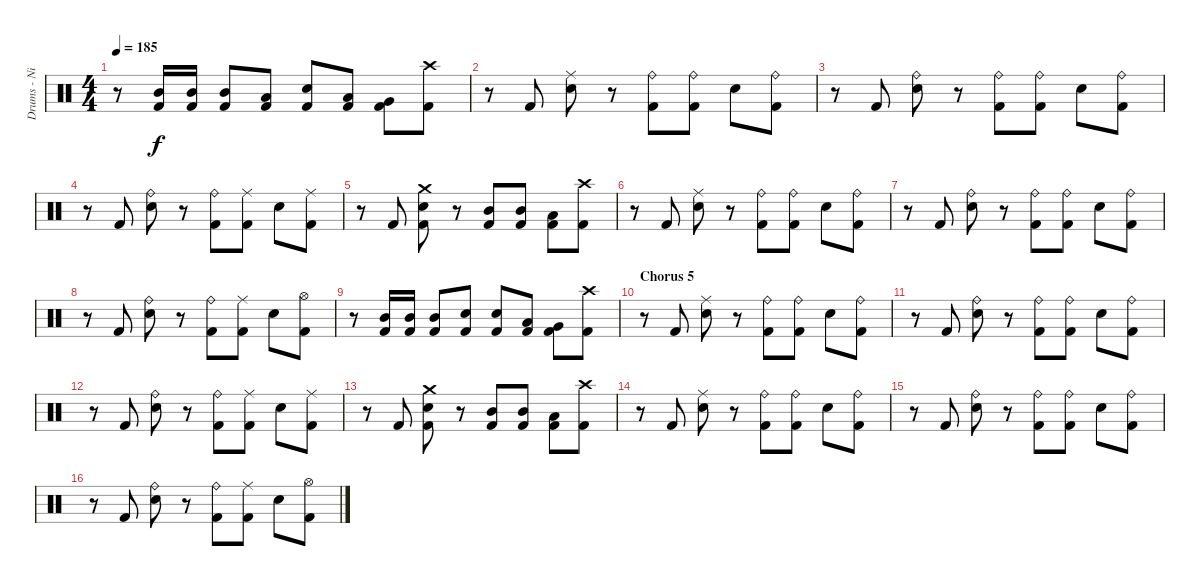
\track ("Drums - Nicko" "Drums - Ni") {instrument percussion}
\staff {score}
\articulation defaults
\ts (4 4)
\tempo 185
\clef neutral
\ks c
r.8{dy f} ("Mid Tom (hit)" "Kick (hit) 2").16 ("Mid Tom (hit)" "Kick (hit) 2").16 ("Mid Tom (hit)" "Kick (hit) 2").8 ("Low Tom (hit)" "Kick (hit) 2").8 ("Snare (hit) 2" "Kick (hit) 2").8 ("Low Tom (hit)" "Kick (hit) 2").8 ("Very Low Tom (hit)" "Kick (hit) 2").8 ("Crash high (hit)" "Kick (hit) 2").8 |
\section ("" "")
r.8 "Kick (hit) 2".8 ("Ride (middle)" "Snare (hit) 2").8 r.8 ("Ride (bell)" "Kick (hit) 2").8 ("Ride (bell)" "Kick (hit) 2").8 "Snare (hit) 2".8 ("Ride (bell)" "Kick (hit) 2").8 |
r.8 "Kick (hit) 2".8 ("Ride (bell)" "Snare (hit) 2").8 r.8 ("Ride (bell)" "Kick (hit) 2").8 ("Ride (bell)" "Kick (hit) 2").8 "Snare (hit) 2".8 ("Ride (bell)" "Kick (hit) 2").8 |
r.8 "Kick (hit) 2".8 ("Ride (bell)" "Snare (hit) 2").8 r.8 ("Ride (bell)" "Kick (hit) 2").8 ("Ride (middle)" "Kick (hit) 2").8 "Snare (hit) 2".8 ("Ride (middle)" "Kick (hit) 2").8 |
r.8 "Kick (hit) 2".8 ("Crash medium (hit)" "Snare (hit) 2" "Kick (hit) 2").8 r.8 ("Mid Tom (hit)" "Kick (hit) 2").8 ("Mid Tom (hit)" "Kick (hit) 2").8 ("Low Tom (hit)" "Kick (hit) 2").8 ("Crash high (hit)" "Kick (hit) 2").8 |
r.8 "Kick (hit) 2".8 ("Ride (middle)" "Snare (hit) 2").8 r.8 ("Ride (bell)" "Kick (hit) 2").8 ("Ride (bell)" "Kick (hit) 2").8 "Snare (hit) 2".8 ("Ride (bell)" "Kick (hit) 2").8 |
r.8 "Kick (hit) 2".8 ("Ride (bell)" "Snare (hit) 2").8 r.8 ("Ride (bell)" "Kick (hit) 2").8 ("Ride (bell)" "Kick (hit) 2").8 "Snare (hit) 2".8 ("Ride (bell)" "Kick (hit) 2").8 |
r.8 "Kick (hit) 2".8 ("Ride (bell)" "Snare (hit) 2").8 r.8 ("Ride (bell)" "Kick (hit) 2").8 ("Ride (middle)" "Kick (hit) 2").8 "Snare (hit) 2".8 ("Hi-Hat (open)" "Kick (hit) 2").8 |
r.8 ("Mid Tom (hit)" "Kick (hit) 2").16 ("Mid Tom (hit)" "Kick (hit) 2").16 ("Mid Tom (hit)" "Kick (hit) 2").8 ("Snare (hit) 2" "Kick (hit) 2").8 ("Snare (hit) 2" "Kick (hit) 2").8 ("Low Tom (hit)" "Kick (hit) 2").8 ("Very Low Tom (hit)" "Kick (hit) 2").8 ("Crash high (hit)" "Kick (hit) 2").8 |
\section ("" "Chorus 5")
r.8 "Kick (hit) 2".8 ("Ride (middle)" "Snare (hit) 2").8 r.8 ("Ride (bell)" "Kick (hit) 2").8 ("Ride (bell)" "Kick (hit) 2").8 "Snare (hit) 2".8 ("Ride (bell)" "Kick (hit) 2").8 |
r.8 "Kick (hit) 2".8 ("Ride (bell)" "Snare (hit) 2").8 r.8 ("Ride (bell)" "Kick (hit) 2").8 ("Ride (bell)" "Kick (hit) 2").8 "Snare (hit) 2".8 ("Ride (bell)" "Kick (hit) 2").8 |
r.8 "Kick (hit) 2".8 ("Ride (bell)" "Snare (hit) 2").8 r.8 ("Ride (bell)" "Kick (hit) 2").8 ("Ride (middle)" "Kick (hit) 2").8 "Snare (hit) 2".8 ("Ride (middle)" "Kick (hit) 2").8 |
r.8 "Kick (hit) 2".8 ("Crash medium (hit)" "Snare (hit) 2" "Kick (hit) 2").8 r.8 ("Mid Tom (hit)" "Kick (hit) 2").8 ("Mid Tom (hit)" "Kick (hit) 2").8 ("Low Tom (hit)" "Kick (hit) 2").8 ("Crash high (hit)" "Kick (hit) 2").8 |
r.8 "Kick (hit) 2".8 ("Ride (middle)" "Snare (hit) 2").8 r.8 ("Ride (bell)" "Kick (hit) 2").8 ("Ride (bell)" "Kick (hit) 2").8 "Snare (hit) 2".8 ("Ride (bell)" "Kick (hit) 2").8 |
r.8 "Kick (hit) 2".8 ("Ride (bell)" "Snare (hit) 2").8 r.8 ("Ride (bell)" "Kick (hit) 2").8 ("Ride (bell)" "Kick (hit) 2").8 "Snare (hit) 2".8 ("Ride (bell)" "Kick (hit) 2").8 |
r.8 "Kick (hit) 2".8 ("Ride (bell)" "Snare (hit) 2").8 r.8 ("Ride (bell)" "Kick (hit) 2").8 ("Ride (middle)" "Kick (hit) 2").8 "Snare (hit) 2".8 ("Hi-Hat (open)" "Kick (hit) 2").8
